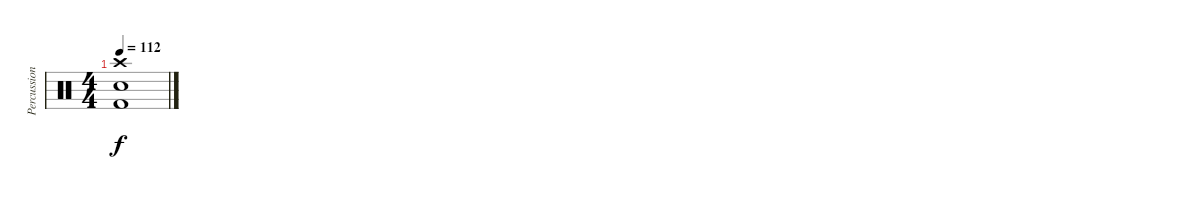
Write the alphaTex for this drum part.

\track ("Percussion" "Percussion") {instrument percussion}
\staff {score}
\articulation defaults
\ts (4 4)
\tempo 112
\clef neutral
\ks c
("Crash high (hit)" "Snare (hit) 2" "Kick (hit) 2").1{dy f volume 5}
